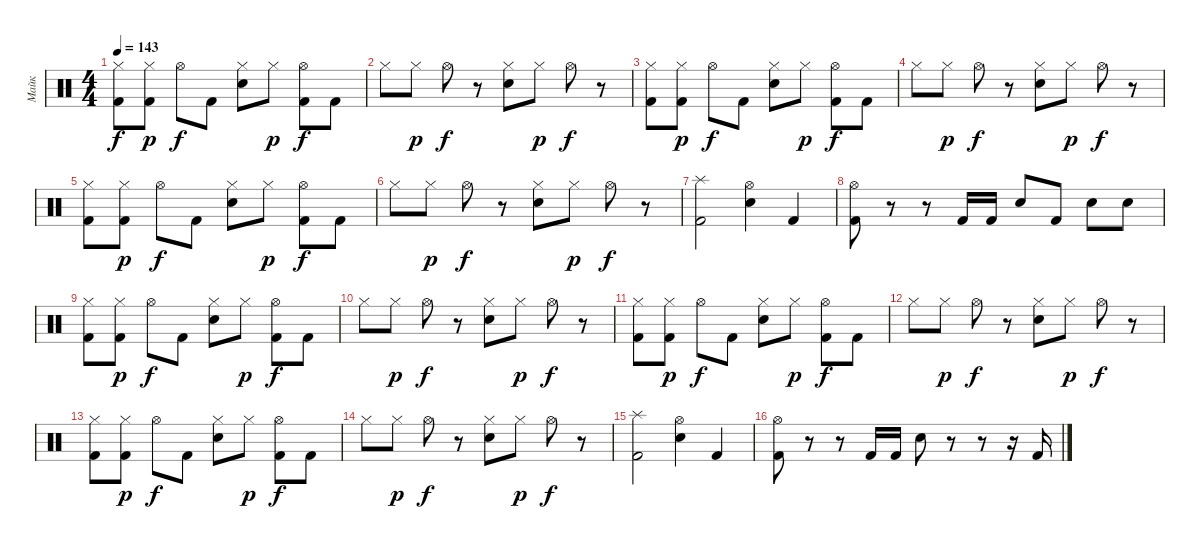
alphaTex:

\track ("Майк" "Майк") {instrument percussion}
\staff {score}
\articulation defaults
\ts (4 4)
\tempo 143
\clef neutral
\ks c
("Hi-Hat (closed)" "Kick (hit) 2").8{dy f} ("Hi-Hat (closed)" "Kick (hit) 2").8{dy p} "Hi-Hat (open)".8{dy f} "Kick (hit) 2".8 ("Hi-Hat (closed)" "Electric Snare (hit)").8 "Hi-Hat (closed)".8{dy p} ("Hi-Hat (open)" "Kick (hit) 2").8{dy f} "Kick (hit) 2".8 |
"Hi-Hat (closed)".8 "Hi-Hat (closed)".8{dy p} "Hi-Hat (open)".8{dy f} r.8 ("Hi-Hat (closed)" "Electric Snare (hit)").8 "Hi-Hat (closed)".8{dy p} "Hi-Hat (open)".8{dy f} r.8 |
("Hi-Hat (closed)" "Kick (hit) 2").8 ("Hi-Hat (closed)" "Kick (hit) 2").8{dy p} "Hi-Hat (open)".8{dy f} "Kick (hit) 2".8 ("Hi-Hat (closed)" "Electric Snare (hit)").8 "Hi-Hat (closed)".8{dy p} ("Hi-Hat (open)" "Kick (hit) 2").8{dy f} "Kick (hit) 2".8 |
"Hi-Hat (closed)".8 "Hi-Hat (closed)".8{dy p} "Hi-Hat (open)".8{dy f} r.8 ("Hi-Hat (closed)" "Electric Snare (hit)").8 "Hi-Hat (closed)".8{dy p} "Hi-Hat (open)".8{dy f} r.8 |
("Hi-Hat (closed)" "Kick (hit) 2").8 ("Hi-Hat (closed)" "Kick (hit) 2").8{dy p} "Hi-Hat (open)".8{dy f} "Kick (hit) 2".8 ("Hi-Hat (closed)" "Electric Snare (hit)").8 "Hi-Hat (closed)".8{dy p} ("Hi-Hat (open)" "Kick (hit) 2").8{dy f} "Kick (hit) 2".8 |
"Hi-Hat (closed)".8 "Hi-Hat (closed)".8{dy p} "Hi-Hat (open)".8{dy f} r.8 ("Hi-Hat (closed)" "Electric Snare (hit)").8 "Hi-Hat (closed)".8{dy p} "Hi-Hat (open)".8{dy f} r.8 |
("Splash (hit)" "Kick (hit) 2").2 ("Hi-Hat (open)" "Electric Snare (hit)").4 "Kick (hit) 2".4 |
("Hi-Hat (open)" "Kick (hit) 2").8 r.8 r.8 "Kick (hit) 2".16 "Kick (hit) 2".16 "Electric Snare (hit)".8 "Kick (hit) 2".8 "Electric Snare (hit)".8 "Electric Snare (hit)".8 |
("Hi-Hat (closed)" "Kick (hit) 2").8 ("Hi-Hat (closed)" "Kick (hit) 2").8{dy p} "Hi-Hat (open)".8{dy f} "Kick (hit) 2".8 ("Hi-Hat (closed)" "Electric Snare (hit)").8 "Hi-Hat (closed)".8{dy p} ("Hi-Hat (open)" "Kick (hit) 2").8{dy f} "Kick (hit) 2".8 |
"Hi-Hat (closed)".8 "Hi-Hat (closed)".8{dy p} "Hi-Hat (open)".8{dy f} r.8 ("Hi-Hat (closed)" "Electric Snare (hit)").8 "Hi-Hat (closed)".8{dy p} "Hi-Hat (open)".8{dy f} r.8 |
("Hi-Hat (closed)" "Kick (hit) 2").8 ("Hi-Hat (closed)" "Kick (hit) 2").8{dy p} "Hi-Hat (open)".8{dy f} "Kick (hit) 2".8 ("Hi-Hat (closed)" "Electric Snare (hit)").8 "Hi-Hat (closed)".8{dy p} ("Hi-Hat (open)" "Kick (hit) 2").8{dy f} "Kick (hit) 2".8 |
"Hi-Hat (closed)".8 "Hi-Hat (closed)".8{dy p} "Hi-Hat (open)".8{dy f} r.8 ("Hi-Hat (closed)" "Electric Snare (hit)").8 "Hi-Hat (closed)".8{dy p} "Hi-Hat (open)".8{dy f} r.8 |
("Hi-Hat (closed)" "Kick (hit) 2").8 ("Hi-Hat (closed)" "Kick (hit) 2").8{dy p} "Hi-Hat (open)".8{dy f} "Kick (hit) 2".8 ("Hi-Hat (closed)" "Electric Snare (hit)").8 "Hi-Hat (closed)".8{dy p} ("Hi-Hat (open)" "Kick (hit) 2").8{dy f} "Kick (hit) 2".8 |
"Hi-Hat (closed)".8 "Hi-Hat (closed)".8{dy p} "Hi-Hat (open)".8{dy f} r.8 ("Hi-Hat (closed)" "Electric Snare (hit)").8 "Hi-Hat (closed)".8{dy p} "Hi-Hat (open)".8{dy f} r.8 |
("Splash (hit)" "Kick (hit) 2").2 ("Hi-Hat (open)" "Electric Snare (hit)").4 "Kick (hit) 2".4 |
("Hi-Hat (open)" "Kick (hit) 2").8 r.8 r.8 "Kick (hit) 2".16 "Kick (hit) 2".16 "Electric Snare (hit)".8 r.8 r.8 r.16 "Kick (hit) 2".16
